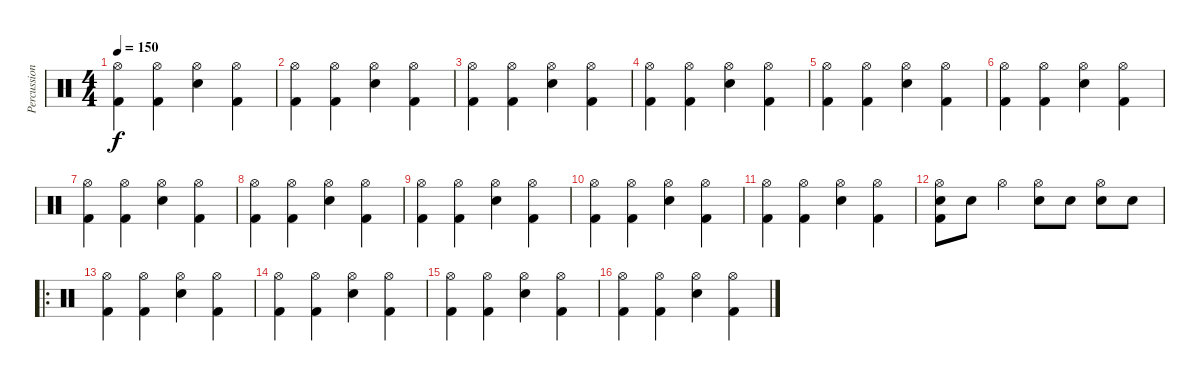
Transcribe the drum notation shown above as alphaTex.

\track ("Percussions" "Percussion") {instrument percussion}
\staff {score}
\articulation defaults
\ts (4 4)
\tempo 150
\clef neutral
\ks c
("Hi-Hat (open)" "Kick (hit) 2").4{dy f} ("Hi-Hat (open)" "Kick (hit) 2").4 ("Hi-Hat (open)" "Electric Snare (hit)").4 ("Hi-Hat (open)" "Kick (hit) 2").4 |
("Hi-Hat (open)" "Kick (hit) 2").4 ("Hi-Hat (open)" "Kick (hit) 2").4 ("Hi-Hat (open)" "Electric Snare (hit)").4 ("Hi-Hat (open)" "Kick (hit) 2").4 |
("Hi-Hat (open)" "Kick (hit) 2").4 ("Hi-Hat (open)" "Kick (hit) 2").4 ("Hi-Hat (open)" "Electric Snare (hit)").4 ("Hi-Hat (open)" "Kick (hit) 2").4 |
("Hi-Hat (open)" "Kick (hit) 2").4 ("Hi-Hat (open)" "Kick (hit) 2").4 ("Hi-Hat (open)" "Electric Snare (hit)").4 ("Hi-Hat (open)" "Kick (hit) 2").4 |
("Hi-Hat (open)" "Kick (hit) 2").4 ("Hi-Hat (open)" "Kick (hit) 2").4 ("Hi-Hat (open)" "Electric Snare (hit)").4 ("Hi-Hat (open)" "Kick (hit) 2").4 |
("Hi-Hat (open)" "Kick (hit) 2").4 ("Hi-Hat (open)" "Kick (hit) 2").4 ("Hi-Hat (open)" "Electric Snare (hit)").4 ("Hi-Hat (open)" "Kick (hit) 2").4 |
("Hi-Hat (open)" "Kick (hit) 2").4 ("Hi-Hat (open)" "Kick (hit) 2").4 ("Hi-Hat (open)" "Electric Snare (hit)").4 ("Hi-Hat (open)" "Kick (hit) 2").4 |
("Hi-Hat (open)" "Kick (hit) 2").4 ("Hi-Hat (open)" "Kick (hit) 2").4 ("Hi-Hat (open)" "Electric Snare (hit)").4 ("Hi-Hat (open)" "Kick (hit) 2").4 |
("Hi-Hat (open)" "Kick (hit) 2").4 ("Hi-Hat (open)" "Kick (hit) 2").4 ("Hi-Hat (open)" "Electric Snare (hit)").4 ("Hi-Hat (open)" "Kick (hit) 2").4 |
("Hi-Hat (open)" "Kick (hit) 2").4 ("Hi-Hat (open)" "Kick (hit) 2").4 ("Hi-Hat (open)" "Electric Snare (hit)").4 ("Hi-Hat (open)" "Kick (hit) 2").4 |
("Hi-Hat (open)" "Kick (hit) 2").4 ("Hi-Hat (open)" "Kick (hit) 2").4 ("Hi-Hat (open)" "Electric Snare (hit)").4 ("Hi-Hat (open)" "Kick (hit) 2").4 |
("Hi-Hat (open)" "Snare (hit) 2" "Kick (hit) 2").8 "Snare (hit) 2".8 "Hi-Hat (open)".4 ("Hi-Hat (open)" "Snare (hit) 2").8 "Snare (hit) 2".8 ("Hi-Hat (open)" "Snare (hit) 2").8 "Snare (hit) 2".8 |
\ro
("Hi-Hat (open)" "Kick (hit) 2").4 ("Hi-Hat (open)" "Kick (hit) 2").4 ("Hi-Hat (open)" "Electric Snare (hit)").4 ("Hi-Hat (open)" "Kick (hit) 2").4 |
("Hi-Hat (open)" "Kick (hit) 2").4 ("Hi-Hat (open)" "Kick (hit) 2").4 ("Hi-Hat (open)" "Electric Snare (hit)").4 ("Hi-Hat (open)" "Kick (hit) 2").4 |
("Hi-Hat (open)" "Kick (hit) 2").4 ("Hi-Hat (open)" "Kick (hit) 2").4 ("Hi-Hat (open)" "Electric Snare (hit)").4 ("Hi-Hat (open)" "Kick (hit) 2").4 |
("Hi-Hat (open)" "Kick (hit) 2").4 ("Hi-Hat (open)" "Kick (hit) 2").4 ("Hi-Hat (open)" "Electric Snare (hit)").4 ("Hi-Hat (open)" "Kick (hit) 2").4
